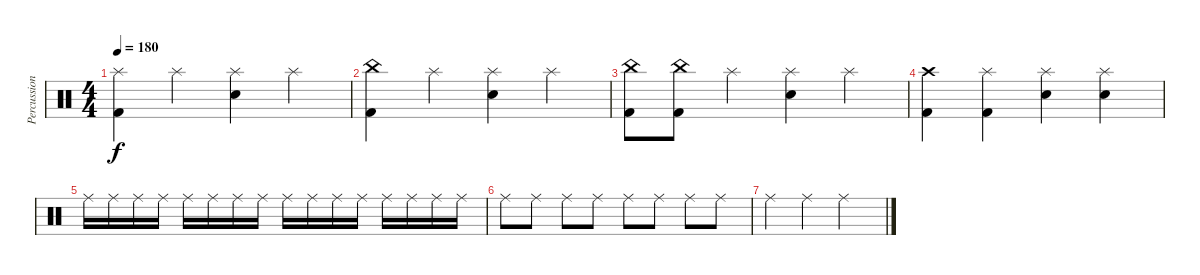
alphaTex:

\track ("Percussion" "Percussion") {instrument percussion}
\staff {score}
\articulation defaults
\ts (4 4)
\tempo 180
\clef neutral
\ks c
("Splash (hit)" "Kick (hit) 2").4{dy f} "Splash (hit)".4 ("Splash (hit)" "Snare (hit) 2").4 "Splash (hit)".4 |
("China (hit)" "Kick (hit) 2").4 "Splash (hit)".4 ("Splash (hit)" "Snare (hit) 2").4 "Splash (hit)".4 |
("China (hit)" "Kick (hit) 2").8 ("China (hit)" "Kick (hit) 2").8 "Splash (hit)".4 ("Splash (hit)" "Snare (hit) 2").4 "Splash (hit)".4 |
("Crash high (hit)" "Kick (hit) 2").4{volume 0} ("Splash (hit)" "Kick (hit) 2").4 ("Splash (hit)" "Snare (hit) 2").4 ("Splash (hit)" "Snare (hit) 2").4 |
"Ride (middle)".16 "Ride (middle)".16 "Ride (middle)".16 "Ride (middle)".16 "Ride (middle)".16 "Ride (middle)".16 "Ride (middle)".16 "Ride (middle)".16 "Ride (middle)".16 "Ride (middle)".16 "Ride (middle)".16 "Ride (middle)".16 "Ride (middle)".16 "Ride (middle)".16 "Ride (middle)".16 "Ride (middle)".16 |
"Ride (middle)".8 "Ride (middle)".8 "Ride (middle)".8 "Ride (middle)".8 "Ride (middle)".8 "Ride (middle)".8 "Ride (middle)".8 "Ride (middle)".8 |
"Ride (middle)".4 "Ride (middle)".4 "Ride (middle)".2
